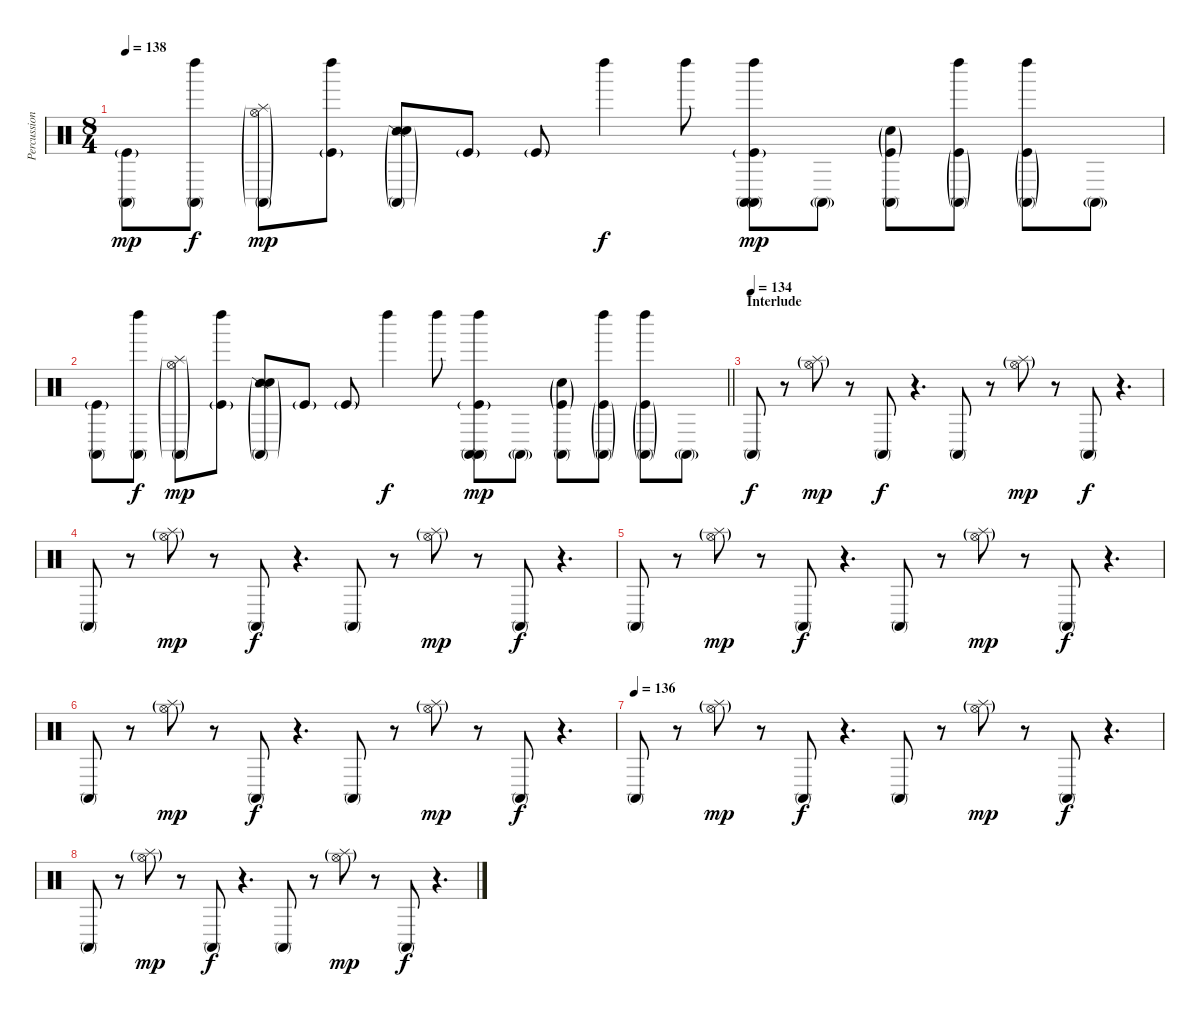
\track ("Percussions" "Percussion") {instrument percussion}
\staff {score}
\articulation defaults
\ts (8 4)
\tempo 138
\clef neutral
\ks c
("Conga high (mute)" "Kick (hit)"{g}).8{dy mp} ("Conga high (mute)" "Left Maraca (hit)").8{dy f} ("Splash (hit)"{g} "Hi-Hat (open)"{g} "Conga high (mute)"{g}).8{dy mp} ("Kick (hit)"{g} "Left Maraca (hit)").8 ("Snare (side stick) 2"{g} "Electric Snare (hit)"{g} "Conga high (mute)"{g}).8 "Kick (hit)"{g}.8 "Kick (hit)"{g}.8 "Left Maraca (hit)".4{dy f} "Left Maraca (hit)".8 ("Conga high (mute)" "Conga high (mute)" "Kick (hit)"{g} "Left Maraca (hit)").8{dy mp} "Conga high (mute)"{g}.8 ("Electric Snare (hit)"{g} "Conga high (mute)" "Kick (hit)"{g}).8 ("Conga high (mute)"{g} "Kick (hit)"{g} "Left Maraca (hit)").8 ("Conga high (mute)"{g} "Kick (hit)"{g} "Left Maraca (hit)").8 "Conga high (mute)"{g}.8 |
\barLineRight lightlight
("Conga high (mute)" "Kick (hit)"{g}).8 ("Conga high (mute)" "Left Maraca (hit)").8{dy f} ("Splash (hit)"{g} "Hi-Hat (open)"{g} "Conga high (mute)"{g}).8{dy mp} ("Kick (hit)"{g} "Left Maraca (hit)").8 ("Snare (side stick) 2"{g} "Electric Snare (hit)"{g} "Conga high (mute)"{g}).8 "Kick (hit)"{g}.8 "Kick (hit)"{g}.8 "Left Maraca (hit)".4{dy f} "Left Maraca (hit)".8 ("Conga high (mute)" "Conga high (mute)" "Kick (hit)"{g} "Left Maraca (hit)").8{dy mp} "Conga high (mute)"{g}.8 ("Electric Snare (hit)"{g} "Conga high (mute)" "Kick (hit)"{g}).8 ("Conga high (mute)"{g} "Kick (hit)"{g} "Left Maraca (hit)").8 ("Conga high (mute)"{g} "Kick (hit)"{g} "Left Maraca (hit)").8 "Conga high (mute)"{g}.8 |
\section ("" "Interlude")
\tempo (134)
"Conga high (mute)".8{dy f} r.8 ("Splash (hit)"{g} "Hi-Hat (open)"{g}).8{dy mp} r.8 "Conga high (mute)".8{dy f} r.4{d} "Conga high (mute)".8 r.8 ("Splash (hit)"{g} "Hi-Hat (open)"{g}).8{dy mp} r.8 "Conga high (mute)".8{dy f} r.4{d} |
"Conga high (mute)".8 r.8 ("Splash (hit)"{g} "Hi-Hat (open)"{g}).8{dy mp} r.8 "Conga high (mute)".8{dy f} r.4{d} "Conga high (mute)".8 r.8 ("Splash (hit)"{g} "Hi-Hat (open)"{g}).8{dy mp} r.8 "Conga high (mute)".8{dy f} r.4{d} |
"Conga high (mute)".8 r.8 ("Splash (hit)"{g} "Hi-Hat (open)"{g}).8{dy mp} r.8 "Conga high (mute)".8{dy f} r.4{d} "Conga high (mute)".8 r.8 ("Splash (hit)"{g} "Hi-Hat (open)"{g}).8{dy mp} r.8 "Conga high (mute)".8{dy f} r.4{d} |
"Conga high (mute)".8 r.8 ("Splash (hit)"{g} "Hi-Hat (open)"{g}).8{dy mp} r.8 "Conga high (mute)".8{dy f} r.4{d} "Conga high (mute)".8 r.8 ("Splash (hit)"{g} "Hi-Hat (open)"{g}).8{dy mp} r.8 "Conga high (mute)".8{dy f} r.4{d} |
\tempo (136)
"Conga high (mute)".8 r.8 ("Splash (hit)"{g} "Hi-Hat (open)"{g}).8{dy mp} r.8 "Conga high (mute)".8{dy f} r.4{d} "Conga high (mute)".8 r.8 ("Splash (hit)"{g} "Hi-Hat (open)"{g}).8{dy mp} r.8 "Conga high (mute)".8{dy f} r.4{d} |
"Conga high (mute)".8 r.8 ("Splash (hit)"{g} "Hi-Hat (open)"{g}).8{dy mp} r.8 "Conga high (mute)".8{dy f} r.4{d} "Conga high (mute)".8 r.8 ("Splash (hit)"{g} "Hi-Hat (open)"{g}).8{dy mp} r.8 "Conga high (mute)".8{dy f} r.4{d}
